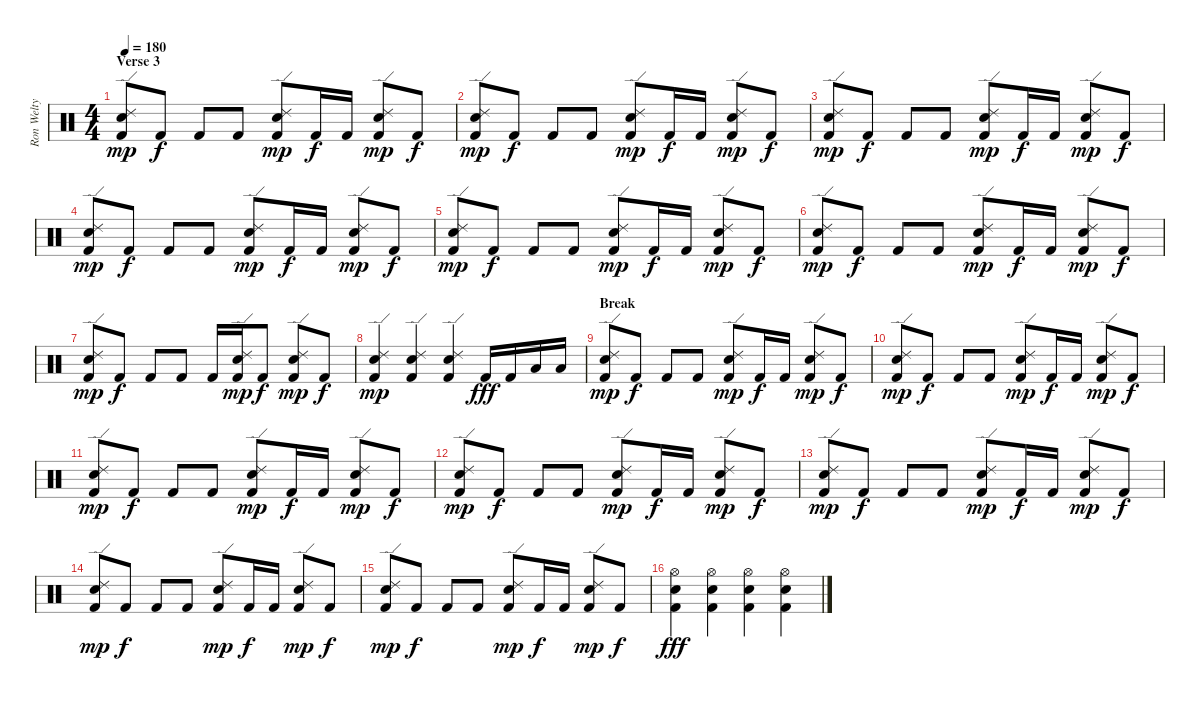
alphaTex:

\track ("Ron Welty" "Ron Welty") {instrument percussion}
\staff {score}
\articulation defaults
\ts (4 4)
\section ("" "Verse 3")
\tempo 180
\clef neutral
\ks c
("Ride (edge) 2" "Electric Snare (hit)" "Kick (hit) 2").8{dy mp volume 8} "Kick (hit) 2".8{dy f} "Kick (hit) 2".8 "Kick (hit) 2".8 ("Ride (edge) 2" "Electric Snare (hit)" "Kick (hit) 2").8{dy mp} "Kick (hit) 2".16{dy f} "Kick (hit) 2".16 ("Ride (edge) 2" "Electric Snare (hit)" "Kick (hit) 2").8{dy mp} "Kick (hit) 2".8{dy f} |
("Ride (edge) 2" "Electric Snare (hit)" "Kick (hit) 2").8{dy mp} "Kick (hit) 2".8{dy f} "Kick (hit) 2".8 "Kick (hit) 2".8 ("Ride (edge) 2" "Electric Snare (hit)" "Kick (hit) 2").8{dy mp} "Kick (hit) 2".16{dy f} "Kick (hit) 2".16 ("Ride (edge) 2" "Electric Snare (hit)" "Kick (hit) 2").8{dy mp} "Kick (hit) 2".8{dy f} |
("Ride (edge) 2" "Electric Snare (hit)" "Kick (hit) 2").8{dy mp} "Kick (hit) 2".8{dy f} "Kick (hit) 2".8 "Kick (hit) 2".8 ("Ride (edge) 2" "Electric Snare (hit)" "Kick (hit) 2").8{dy mp} "Kick (hit) 2".16{dy f} "Kick (hit) 2".16 ("Ride (edge) 2" "Electric Snare (hit)" "Kick (hit) 2").8{dy mp} "Kick (hit) 2".8{dy f} |
("Ride (edge) 2" "Electric Snare (hit)" "Kick (hit) 2").8{dy mp} "Kick (hit) 2".8{dy f} "Kick (hit) 2".8 "Kick (hit) 2".8 ("Ride (edge) 2" "Electric Snare (hit)" "Kick (hit) 2").8{dy mp} "Kick (hit) 2".16{dy f} "Kick (hit) 2".16 ("Ride (edge) 2" "Electric Snare (hit)" "Kick (hit) 2").8{dy mp} "Kick (hit) 2".8{dy f} |
("Ride (edge) 2" "Electric Snare (hit)" "Kick (hit) 2").8{dy mp} "Kick (hit) 2".8{dy f} "Kick (hit) 2".8 "Kick (hit) 2".8 ("Ride (edge) 2" "Electric Snare (hit)" "Kick (hit) 2").8{dy mp} "Kick (hit) 2".16{dy f} "Kick (hit) 2".16 ("Ride (edge) 2" "Electric Snare (hit)" "Kick (hit) 2").8{dy mp} "Kick (hit) 2".8{dy f} |
("Ride (edge) 2" "Electric Snare (hit)" "Kick (hit) 2").8{dy mp} "Kick (hit) 2".8{dy f} "Kick (hit) 2".8 "Kick (hit) 2".8 ("Ride (edge) 2" "Electric Snare (hit)" "Kick (hit) 2").8{dy mp} "Kick (hit) 2".16{dy f} "Kick (hit) 2".16 ("Ride (edge) 2" "Electric Snare (hit)" "Kick (hit) 2").8{dy mp} "Kick (hit) 2".8{dy f} |
("Ride (edge) 2" "Electric Snare (hit)" "Kick (hit) 2").8{dy mp} "Kick (hit) 2".8{dy f} "Kick (hit) 2".8 "Kick (hit) 2".8 "Kick (hit) 2".16 ("Ride (edge) 2" "Electric Snare (hit)" "Kick (hit) 2").16{dy mp} "Kick (hit) 2".8{dy f} ("Ride (edge) 2" "Electric Snare (hit)" "Kick (hit) 2").8{dy mp} "Kick (hit) 2".8{dy f} |
("Ride (edge) 2" "Electric Snare (hit)" "Kick (hit) 2").4{dy mp} ("Ride (edge) 2" "Electric Snare (hit)" "Kick (hit) 2").4 ("Ride (edge) 2" "Electric Snare (hit)" "Kick (hit) 2").4 "Kick (hit) 2".16{dy fff} "Kick (hit) 2".16 "Low Floor Tom (hit)".16 "Low Tom (hit)".16 |
\section ("" "Break")
("Ride (edge) 2" "Electric Snare (hit)" "Kick (hit) 2").8{dy mp volume 9} "Kick (hit) 2".8{dy f} "Kick (hit) 2".8 "Kick (hit) 2".8 ("Ride (edge) 2" "Electric Snare (hit)" "Kick (hit) 2").8{dy mp} "Kick (hit) 2".16{dy f} "Kick (hit) 2".16 ("Ride (edge) 2" "Electric Snare (hit)" "Kick (hit) 2").8{dy mp} "Kick (hit) 2".8{dy f} |
("Ride (edge) 2" "Electric Snare (hit)" "Kick (hit) 2").8{dy mp} "Kick (hit) 2".8{dy f} "Kick (hit) 2".8 "Kick (hit) 2".8 ("Ride (edge) 2" "Electric Snare (hit)" "Kick (hit) 2").8{dy mp} "Kick (hit) 2".16{dy f} "Kick (hit) 2".16 ("Ride (edge) 2" "Electric Snare (hit)" "Kick (hit) 2").8{dy mp} "Kick (hit) 2".8{dy f} |
("Ride (edge) 2" "Electric Snare (hit)" "Kick (hit) 2").8{dy mp} "Kick (hit) 2".8{dy f} "Kick (hit) 2".8 "Kick (hit) 2".8 ("Ride (edge) 2" "Electric Snare (hit)" "Kick (hit) 2").8{dy mp} "Kick (hit) 2".16{dy f} "Kick (hit) 2".16 ("Ride (edge) 2" "Electric Snare (hit)" "Kick (hit) 2").8{dy mp} "Kick (hit) 2".8{dy f} |
("Ride (edge) 2" "Electric Snare (hit)" "Kick (hit) 2").8{dy mp} "Kick (hit) 2".8{dy f} "Kick (hit) 2".8 "Kick (hit) 2".8 ("Ride (edge) 2" "Electric Snare (hit)" "Kick (hit) 2").8{dy mp} "Kick (hit) 2".16{dy f} "Kick (hit) 2".16 ("Ride (edge) 2" "Electric Snare (hit)" "Kick (hit) 2").8{dy mp} "Kick (hit) 2".8{dy f} |
("Ride (edge) 2" "Electric Snare (hit)" "Kick (hit) 2").8{dy mp} "Kick (hit) 2".8{dy f} "Kick (hit) 2".8 "Kick (hit) 2".8 ("Ride (edge) 2" "Electric Snare (hit)" "Kick (hit) 2").8{dy mp} "Kick (hit) 2".16{dy f} "Kick (hit) 2".16 ("Ride (edge) 2" "Electric Snare (hit)" "Kick (hit) 2").8{dy mp} "Kick (hit) 2".8{dy f} |
("Ride (edge) 2" "Electric Snare (hit)" "Kick (hit) 2").8{dy mp} "Kick (hit) 2".8{dy f} "Kick (hit) 2".8 "Kick (hit) 2".8 ("Ride (edge) 2" "Electric Snare (hit)" "Kick (hit) 2").8{dy mp} "Kick (hit) 2".16{dy f} "Kick (hit) 2".16 ("Ride (edge) 2" "Electric Snare (hit)" "Kick (hit) 2").8{dy mp} "Kick (hit) 2".8{dy f} |
("Ride (edge) 2" "Electric Snare (hit)" "Kick (hit) 2").8{dy mp} "Kick (hit) 2".8{dy f} "Kick (hit) 2".8 "Kick (hit) 2".8 ("Ride (edge) 2" "Electric Snare (hit)" "Kick (hit) 2").8{dy mp} "Kick (hit) 2".16{dy f} "Kick (hit) 2".16 ("Ride (edge) 2" "Electric Snare (hit)" "Kick (hit) 2").8{dy mp} "Kick (hit) 2".8{dy f} |
("Hi-Hat (open)" "Electric Snare (hit)" "Kick (hit) 2").4{dy fff volume 10} ("Hi-Hat (open)" "Electric Snare (hit)" "Kick (hit) 2").4 ("Hi-Hat (open)" "Electric Snare (hit)" "Kick (hit) 2").4 ("Hi-Hat (open)" "Electric Snare (hit)" "Kick (hit) 2").4
